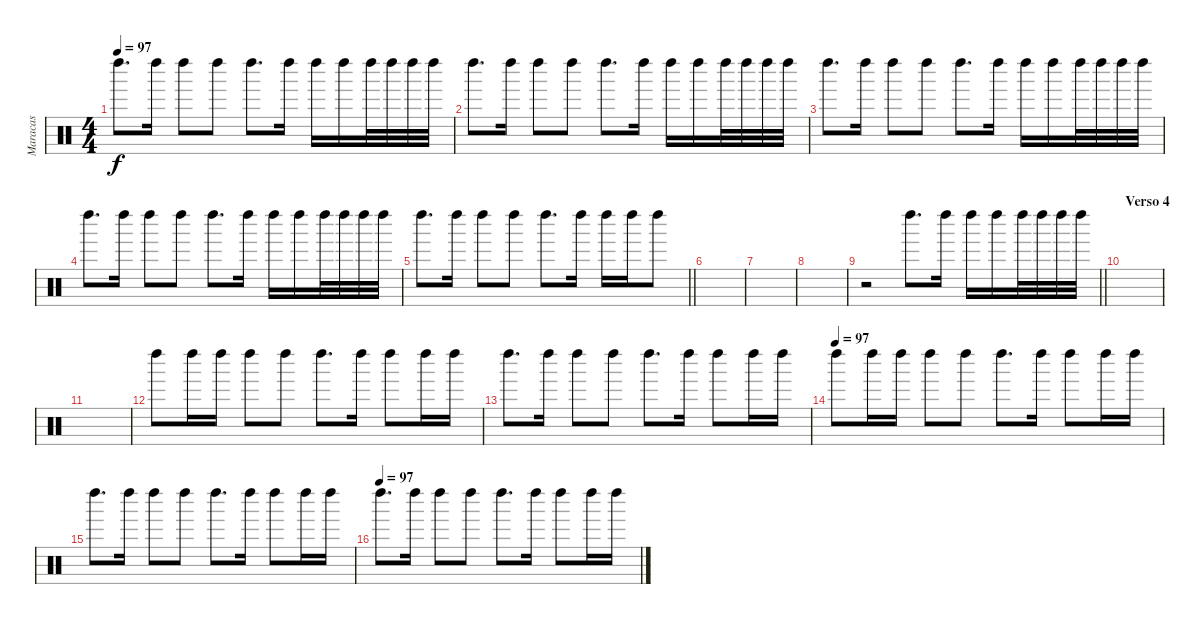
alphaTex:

\track ("Maracas" "Maracas") {instrument percussion}
\staff {score}
\articulation defaults
\ts (4 4)
\tempo 97
\clef neutral
\ks c "Left Maraca (hit)".8{d dy f} "Left Maraca (hit)".16 "Left Maraca (hit)".8 "Left Maraca (hit)".8 "Left Maraca (hit)".8{d} "Left Maraca (hit)".16 "Left Maraca (hit)".16 "Left Maraca (hit)".16 "Left Maraca (hit)".32 "Left Maraca (hit)".32 "Left Maraca (hit)".32 "Left Maraca (hit)".32
|
"Left Maraca (hit)".8{d} "Left Maraca (hit)".16 "Left Maraca (hit)".8 "Left Maraca (hit)".8 "Left Maraca (hit)".8{d} "Left Maraca (hit)".16 "Left Maraca (hit)".16 "Left Maraca (hit)".16 "Left Maraca (hit)".32 "Left Maraca (hit)".32 "Left Maraca (hit)".32 "Left Maraca (hit)".32 |
"Left Maraca (hit)".8{d} "Left Maraca (hit)".16 "Left Maraca (hit)".8 "Left Maraca (hit)".8 "Left Maraca (hit)".8{d} "Left Maraca (hit)".16 "Left Maraca (hit)".16 "Left Maraca (hit)".16 "Left Maraca (hit)".32 "Left Maraca (hit)".32 "Left Maraca (hit)".32 "Left Maraca (hit)".32 |
"Left Maraca (hit)".8{d} "Left Maraca (hit)".16 "Left Maraca (hit)".8 "Left Maraca (hit)".8 "Left Maraca (hit)".8{d} "Left Maraca (hit)".16 "Left Maraca (hit)".16 "Left Maraca (hit)".16 "Left Maraca (hit)".32 "Left Maraca (hit)".32 "Left Maraca (hit)".32 "Left Maraca (hit)".32 |
\barLineRight lightlight "Left Maraca (hit)".8{d} "Left Maraca (hit)".16 "Left Maraca (hit)".8 "Left Maraca (hit)".8 "Left Maraca (hit)".8{d} "Left Maraca (hit)".16 "Left Maraca (hit)".16 "Left Maraca (hit)".16 "Left Maraca (hit)".8
|
|
|
|
\barLineRight lightlight
r.2 "Left Maraca (hit)".8{d} "Left Maraca (hit)".16 "Left Maraca (hit)".16 "Left Maraca (hit)".16 "Left Maraca (hit)".32 "Left Maraca (hit)".32 "Left Maraca (hit)".32 "Left Maraca (hit)".32 |
\section ("" "Verso 4")
|
|
"Left Maraca (hit)".8 "Left Maraca (hit)".16 "Left Maraca (hit)".16 "Left Maraca (hit)".8 "Left Maraca (hit)".8 "Left Maraca (hit)".8{d} "Left Maraca (hit)".16 "Left Maraca (hit)".8 "Left Maraca (hit)".16 "Left Maraca (hit)".16 |
"Left Maraca (hit)".8{d} "Left Maraca (hit)".16 "Left Maraca (hit)".8 "Left Maraca (hit)".8 "Left Maraca (hit)".8{d} "Left Maraca (hit)".16 "Left Maraca (hit)".8 "Left Maraca (hit)".16 "Left Maraca (hit)".16 |
\tempo (97)
"Left Maraca (hit)".8 "Left Maraca (hit)".16 "Left Maraca (hit)".16 "Left Maraca (hit)".8 "Left Maraca (hit)".8 "Left Maraca (hit)".8{d} "Left Maraca (hit)".16 "Left Maraca (hit)".8 "Left Maraca (hit)".16 "Left Maraca (hit)".16 |
"Left Maraca (hit)".8{d} "Left Maraca (hit)".16 "Left Maraca (hit)".8 "Left Maraca (hit)".8 "Left Maraca (hit)".8{d} "Left Maraca (hit)".16 "Left Maraca (hit)".8 "Left Maraca (hit)".16 "Left Maraca (hit)".16 |
\tempo (97)
"Left Maraca (hit)".8{d} "Left Maraca (hit)".16 "Left Maraca (hit)".8 "Left Maraca (hit)".8 "Left Maraca (hit)".8{d} "Left Maraca (hit)".16 "Left Maraca (hit)".8 "Left Maraca (hit)".16 "Left Maraca (hit)".16
